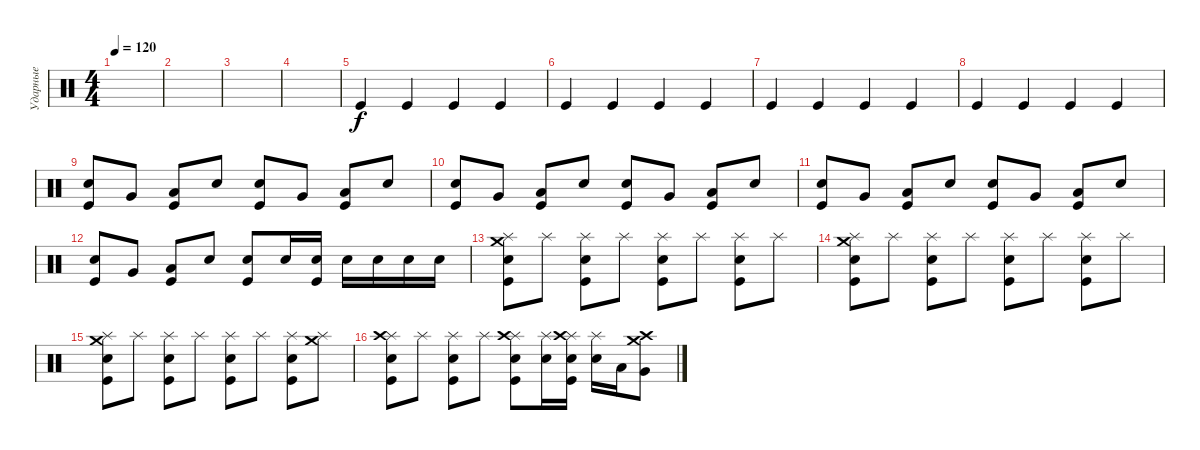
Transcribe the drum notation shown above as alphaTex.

\track ("Ударные" "Ударные") {instrument percussion}
\staff {score}
\articulation defaults
\ts (4 4)
\tempo 120
\clef neutral
\ks c
|
|
|
|
"Kick (hit)".4 "Kick (hit)".4 "Kick (hit)".4 "Kick (hit)".4 |
"Kick (hit)".4 "Kick (hit)".4 "Kick (hit)".4 "Kick (hit)".4 |
"Kick (hit)".4 "Kick (hit)".4 "Kick (hit)".4 "Kick (hit)".4 |
"Kick (hit)".4 "Kick (hit)".4 "Kick (hit)".4 "Kick (hit)".4 |
("Snare (hit) 2" "Kick (hit)").8 "Very Low Tom (hit)".8 ("Low Floor Tom (hit)" "Kick (hit)").8 "Electric Snare (hit)".8 ("Snare (hit) 2" "Kick (hit)").8 "Very Low Tom (hit)".8 ("Low Floor Tom (hit)" "Kick (hit)").8 "Electric Snare (hit)".8 |
("Snare (hit) 2" "Kick (hit)").8 "Very Low Tom (hit)".8 ("Low Floor Tom (hit)" "Kick (hit)").8 "Electric Snare (hit)".8 ("Snare (hit) 2" "Kick (hit)").8 "Very Low Tom (hit)".8 ("Low Floor Tom (hit)" "Kick (hit)").8 "Electric Snare (hit)".8 |
("Snare (hit) 2" "Kick (hit)").8 "Very Low Tom (hit)".8 ("Low Floor Tom (hit)" "Kick (hit)").8 "Electric Snare (hit)".8 ("Snare (hit) 2" "Kick (hit)").8 "Very Low Tom (hit)".8 ("Low Floor Tom (hit)" "Kick (hit)").8 "Electric Snare (hit)".8 |
("Snare (hit) 2" "Kick (hit)").8 "Very Low Tom (hit)".8 ("Low Floor Tom (hit)" "Kick (hit)").8 "Electric Snare (hit)".8 ("Snare (hit) 2" "Kick (hit)").8 "Snare (hit) 2".16 ("Snare (hit) 2" "Kick (hit)").16 "Snare (hit) 2".16 "Electric Snare (hit)".16 "Electric Snare (hit)".16 "Snare (hit) 2".16 |
("Splash (hit)" "Crash medium (hit)" "Electric Snare (hit)" "Kick (hit)").8 "Splash (hit)".8 ("Splash (hit)" "Electric Snare (hit)" "Kick (hit)").8 "Splash (hit)".8 ("Splash (hit)" "Electric Snare (hit)" "Kick (hit)").8 "Splash (hit)".8 ("Splash (hit)" "Electric Snare (hit)" "Kick (hit)").8 "Splash (hit)".8 |
("Splash (hit)" "Crash medium (hit)" "Electric Snare (hit)" "Kick (hit)").8 "Splash (hit)".8 ("Splash (hit)" "Electric Snare (hit)" "Kick (hit)").8 "Splash (hit)".8 ("Splash (hit)" "Electric Snare (hit)" "Kick (hit)").8 "Splash (hit)".8 ("Splash (hit)" "Electric Snare (hit)" "Kick (hit)").8 "Splash (hit)".8 |
("Splash (hit)" "Crash medium (hit)" "Electric Snare (hit)" "Kick (hit)").8 "Splash (hit)".8 ("Splash (hit)" "Electric Snare (hit)" "Kick (hit)").8 "Splash (hit)".8 ("Splash (hit)" "Electric Snare (hit)" "Kick (hit)").8 "Splash (hit)".8 ("Splash (hit)" "Electric Snare (hit)" "Kick (hit)").8 ("Splash (hit)" "Crash medium (hit)").8 |
("Splash (hit)" "Crash high (hit)" "Electric Snare (hit)" "Kick (hit)").8 "Splash (hit)".8 ("Splash (hit)" "Electric Snare (hit)" "Kick (hit)").8 "Splash (hit)".8 ("Splash (hit)" "Crash high (hit)" "Electric Snare (hit)" "Kick (hit)").8 ("Splash (hit)" "Snare (hit) 2").16 ("Splash (hit)" "Crash high (hit)" "Electric Snare (hit)" "Kick (hit)").16 ("Splash (hit)" "Electric Snare (hit)").16 "Low Floor Tom (hit)".16 ("Crash medium (hit)" "Crash high (hit)" "Very Low Tom (hit)").8
